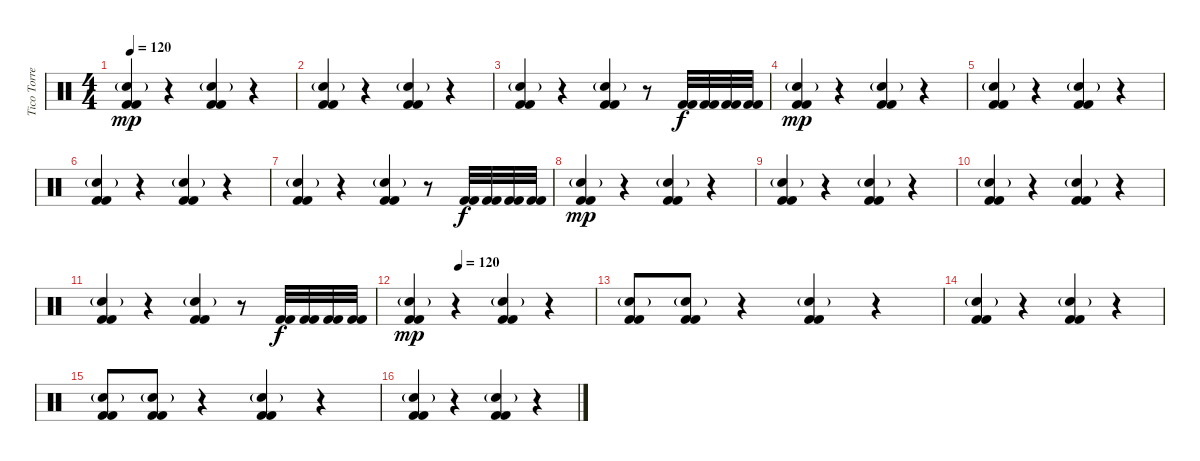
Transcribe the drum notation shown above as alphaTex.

\track ("Tico Torres" "Tico Torre") {instrument percussion}
\staff {score}
\articulation defaults
\ts (4 4)
\tempo 120
\clef neutral
\ks c
("Electric Snare (hit)"{g} "Kick (hit) 2" "Kick (hit) 2").4{dy mp} r.4 ("Electric Snare (hit)"{g} "Kick (hit) 2" "Kick (hit) 2").4 r.4 |
("Electric Snare (hit)"{g} "Kick (hit) 2" "Kick (hit) 2").4 r.4 ("Electric Snare (hit)"{g} "Kick (hit) 2" "Kick (hit) 2").4 r.4 |
("Electric Snare (hit)"{g} "Kick (hit) 2" "Kick (hit) 2").4 r.4 ("Electric Snare (hit)"{g} "Kick (hit) 2" "Kick (hit) 2").4 r.8 ("Kick (hit) 2" "Kick (hit) 2").32{dy f} ("Kick (hit) 2" "Kick (hit) 2").32 ("Kick (hit) 2" "Kick (hit) 2").32 ("Kick (hit) 2" "Kick (hit) 2").32 |
("Electric Snare (hit)"{g} "Kick (hit) 2" "Kick (hit) 2").4{dy mp} r.4 ("Electric Snare (hit)"{g} "Kick (hit) 2" "Kick (hit) 2").4 r.4 |
("Electric Snare (hit)"{g} "Kick (hit) 2" "Kick (hit) 2").4 r.4 ("Electric Snare (hit)"{g} "Kick (hit) 2" "Kick (hit) 2").4 r.4 |
("Electric Snare (hit)"{g} "Kick (hit) 2" "Kick (hit) 2").4 r.4 ("Electric Snare (hit)"{g} "Kick (hit) 2" "Kick (hit) 2").4 r.4 |
("Electric Snare (hit)"{g} "Kick (hit) 2" "Kick (hit) 2").4 r.4 ("Electric Snare (hit)"{g} "Kick (hit) 2" "Kick (hit) 2").4 r.8 ("Kick (hit) 2" "Kick (hit) 2").32{dy f} ("Kick (hit) 2" "Kick (hit) 2").32 ("Kick (hit) 2" "Kick (hit) 2").32 ("Kick (hit) 2" "Kick (hit) 2").32 |
("Electric Snare (hit)"{g} "Kick (hit) 2" "Kick (hit) 2").4{dy mp} r.4 ("Electric Snare (hit)"{g} "Kick (hit) 2" "Kick (hit) 2").4 r.4 |
("Electric Snare (hit)"{g} "Kick (hit) 2" "Kick (hit) 2").4 r.4 ("Electric Snare (hit)"{g} "Kick (hit) 2" "Kick (hit) 2").4 r.4 |
("Electric Snare (hit)"{g} "Kick (hit) 2" "Kick (hit) 2").4 r.4 ("Electric Snare (hit)"{g} "Kick (hit) 2" "Kick (hit) 2").4 r.4 |
("Electric Snare (hit)"{g} "Kick (hit) 2" "Kick (hit) 2").4 r.4 ("Electric Snare (hit)"{g} "Kick (hit) 2" "Kick (hit) 2").4 r.8 ("Kick (hit) 2" "Kick (hit) 2").32{dy f} ("Kick (hit) 2" "Kick (hit) 2").32 ("Kick (hit) 2" "Kick (hit) 2").32 ("Kick (hit) 2" "Kick (hit) 2").32 |
\tempo (120 0.25)
("Electric Snare (hit)"{g} "Kick (hit) 2" "Kick (hit) 2").4{dy mp} r.4 ("Electric Snare (hit)"{g} "Kick (hit) 2" "Kick (hit) 2").4 r.4 |
("Electric Snare (hit)"{g} "Kick (hit) 2" "Kick (hit) 2").8 ("Electric Snare (hit)"{g} "Kick (hit) 2" "Kick (hit) 2").8 r.4 ("Electric Snare (hit)"{g} "Kick (hit) 2" "Kick (hit) 2").4 r.4 |
("Electric Snare (hit)"{g} "Kick (hit) 2" "Kick (hit) 2").4 r.4 ("Electric Snare (hit)"{g} "Kick (hit) 2" "Kick (hit) 2").4 r.4 |
("Electric Snare (hit)"{g} "Kick (hit) 2" "Kick (hit) 2").8 ("Electric Snare (hit)"{g} "Kick (hit) 2" "Kick (hit) 2").8 r.4 ("Electric Snare (hit)"{g} "Kick (hit) 2" "Kick (hit) 2").4 r.4 |
("Electric Snare (hit)"{g} "Kick (hit) 2" "Kick (hit) 2").4 r.4 ("Electric Snare (hit)"{g} "Kick (hit) 2" "Kick (hit) 2").4 r.4
